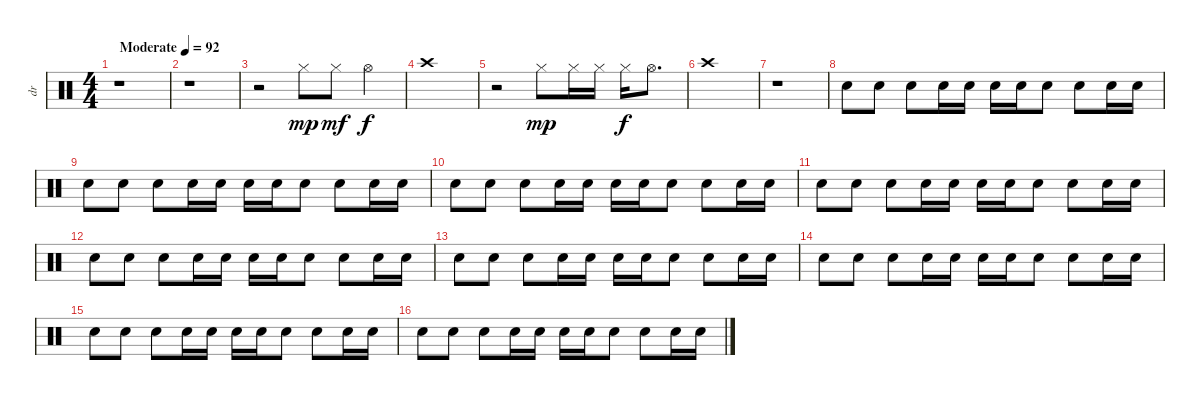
\track ("dr" "dr") {instrument percussion}
\staff {score}
\articulation defaults
\ts (4 4)
\tempo (92 "Moderate")
\clef neutral
\ks c
r.1{dy mp} |
r.1 |
r.2 "Hi-Hat (closed)".8 "Hi-Hat (closed)".8{dy mf} "Hi-Hat (open)".4{dy f} |
"Crash high (hit)".1 |
r.2 "Hi-Hat (closed)".8{dy mp} "Hi-Hat (closed)".16 "Hi-Hat (closed)".16 "Hi-Hat (closed)".16{dy f} "Hi-Hat (open)".8{d} |
"Crash high (hit)".1 |
r.1 |
"Electric Snare (hit)".8 "Electric Snare (hit)".8 "Electric Snare (hit)".8 "Electric Snare (hit)".16 "Electric Snare (hit)".16 "Electric Snare (hit)".16 "Electric Snare (hit)".16 "Electric Snare (hit)".8 "Electric Snare (hit)".8 "Electric Snare (hit)".16 "Electric Snare (hit)".16 |
"Electric Snare (hit)".8 "Electric Snare (hit)".8 "Electric Snare (hit)".8 "Electric Snare (hit)".16 "Electric Snare (hit)".16 "Electric Snare (hit)".16 "Electric Snare (hit)".16 "Electric Snare (hit)".8 "Electric Snare (hit)".8 "Electric Snare (hit)".16 "Electric Snare (hit)".16 |
"Electric Snare (hit)".8 "Electric Snare (hit)".8 "Electric Snare (hit)".8 "Electric Snare (hit)".16 "Electric Snare (hit)".16 "Electric Snare (hit)".16 "Electric Snare (hit)".16 "Electric Snare (hit)".8 "Electric Snare (hit)".8 "Electric Snare (hit)".16 "Electric Snare (hit)".16 |
"Electric Snare (hit)".8 "Electric Snare (hit)".8 "Electric Snare (hit)".8 "Electric Snare (hit)".16 "Electric Snare (hit)".16 "Electric Snare (hit)".16 "Electric Snare (hit)".16 "Electric Snare (hit)".8 "Electric Snare (hit)".8 "Electric Snare (hit)".16 "Electric Snare (hit)".16 |
"Electric Snare (hit)".8 "Electric Snare (hit)".8 "Electric Snare (hit)".8 "Electric Snare (hit)".16 "Electric Snare (hit)".16 "Electric Snare (hit)".16 "Electric Snare (hit)".16 "Electric Snare (hit)".8 "Electric Snare (hit)".8 "Electric Snare (hit)".16 "Electric Snare (hit)".16 |
"Electric Snare (hit)".8 "Electric Snare (hit)".8 "Electric Snare (hit)".8 "Electric Snare (hit)".16 "Electric Snare (hit)".16 "Electric Snare (hit)".16 "Electric Snare (hit)".16 "Electric Snare (hit)".8 "Electric Snare (hit)".8 "Electric Snare (hit)".16 "Electric Snare (hit)".16 |
"Electric Snare (hit)".8 "Electric Snare (hit)".8 "Electric Snare (hit)".8 "Electric Snare (hit)".16 "Electric Snare (hit)".16 "Electric Snare (hit)".16 "Electric Snare (hit)".16 "Electric Snare (hit)".8 "Electric Snare (hit)".8 "Electric Snare (hit)".16 "Electric Snare (hit)".16 |
"Electric Snare (hit)".8 "Electric Snare (hit)".8 "Electric Snare (hit)".8 "Electric Snare (hit)".16 "Electric Snare (hit)".16 "Electric Snare (hit)".16 "Electric Snare (hit)".16 "Electric Snare (hit)".8 "Electric Snare (hit)".8 "Electric Snare (hit)".16 "Electric Snare (hit)".16 |
"Electric Snare (hit)".8 "Electric Snare (hit)".8 "Electric Snare (hit)".8 "Electric Snare (hit)".16 "Electric Snare (hit)".16 "Electric Snare (hit)".16 "Electric Snare (hit)".16 "Electric Snare (hit)".8 "Electric Snare (hit)".8 "Electric Snare (hit)".16 "Electric Snare (hit)".16
